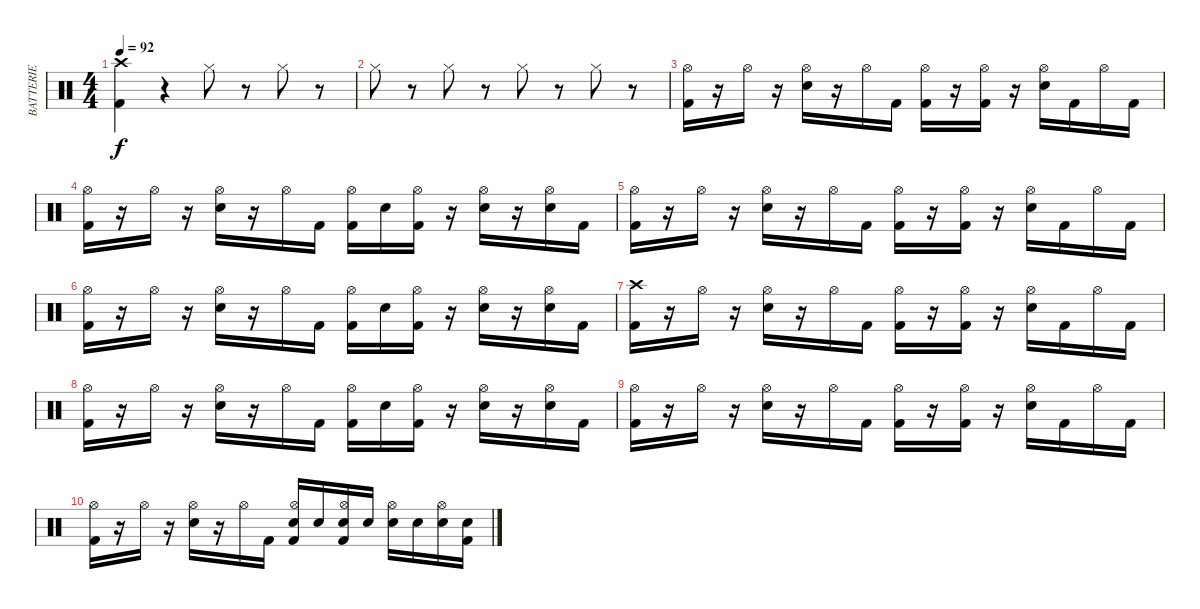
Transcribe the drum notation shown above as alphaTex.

\track ("BATTERIE" "BATTERIE") {instrument percussion}
\staff {score}
\articulation defaults
\ts (4 4)
\tempo 92
\clef neutral
\ks c
("Crash high (hit)" "Kick (hit) 2").4{dy f} r.4 "Hi-Hat (closed)".8 r.8 "Hi-Hat (closed)".8 r.8 |
"Hi-Hat (closed)".8 r.8 "Hi-Hat (closed)".8 r.8 "Hi-Hat (closed)".8 r.8 "Hi-Hat (closed)".8 r.8 |
("Hi-Hat (open)" "Kick (hit) 2").16 r.16 "Hi-Hat (open)".16 r.16 ("Hi-Hat (open)" "Snare (hit) 2").16 r.16 "Hi-Hat (open)".16 "Kick (hit) 2".16 ("Hi-Hat (open)" "Kick (hit) 2").16 r.16 ("Hi-Hat (open)" "Kick (hit) 2").16 r.16 ("Hi-Hat (open)" "Snare (hit) 2").16 "Kick (hit) 2".16 "Hi-Hat (open)".16 "Kick (hit) 2".16 |
("Hi-Hat (open)" "Kick (hit) 2").16 r.16 "Hi-Hat (open)".16 r.16 ("Hi-Hat (open)" "Snare (hit) 2").16 r.16 "Hi-Hat (open)".16 "Kick (hit) 2".16 ("Hi-Hat (open)" "Kick (hit) 2").16 "Snare (hit) 2".16 ("Hi-Hat (open)" "Kick (hit) 2").16 r.16 ("Hi-Hat (open)" "Snare (hit) 2").16 r.16 ("Hi-Hat (open)" "Snare (hit) 2").16 "Kick (hit) 2".16 |
("Hi-Hat (open)" "Kick (hit) 2").16 r.16 "Hi-Hat (open)".16 r.16 ("Hi-Hat (open)" "Snare (hit) 2").16 r.16 "Hi-Hat (open)".16 "Kick (hit) 2".16 ("Hi-Hat (open)" "Kick (hit) 2").16 r.16 ("Hi-Hat (open)" "Kick (hit) 2").16 r.16 ("Hi-Hat (open)" "Snare (hit) 2").16 "Kick (hit) 2".16 "Hi-Hat (open)".16 "Kick (hit) 2".16 |
("Hi-Hat (open)" "Kick (hit) 2").16 r.16 "Hi-Hat (open)".16 r.16 ("Hi-Hat (open)" "Snare (hit) 2").16 r.16 "Hi-Hat (open)".16 "Kick (hit) 2".16 ("Hi-Hat (open)" "Kick (hit) 2").16 "Snare (hit) 2".16 ("Hi-Hat (open)" "Kick (hit) 2").16 r.16 ("Hi-Hat (open)" "Snare (hit) 2").16 r.16 ("Hi-Hat (open)" "Snare (hit) 2").16 "Kick (hit) 2".16 |
("Crash high (hit)" "Kick (hit) 2").16 r.16 "Hi-Hat (open)".16 r.16 ("Hi-Hat (open)" "Snare (hit) 2").16 r.16 "Hi-Hat (open)".16 "Kick (hit) 2".16 ("Hi-Hat (open)" "Kick (hit) 2").16 r.16 ("Hi-Hat (open)" "Kick (hit) 2").16 r.16 ("Hi-Hat (open)" "Snare (hit) 2").16 "Kick (hit) 2".16 "Hi-Hat (open)".16 "Kick (hit) 2".16 |
("Hi-Hat (open)" "Kick (hit) 2").16 r.16 "Hi-Hat (open)".16 r.16 ("Hi-Hat (open)" "Snare (hit) 2").16 r.16 "Hi-Hat (open)".16 "Kick (hit) 2".16 ("Hi-Hat (open)" "Kick (hit) 2").16 "Snare (hit) 2".16 ("Hi-Hat (open)" "Kick (hit) 2").16 r.16 ("Hi-Hat (open)" "Snare (hit) 2").16 r.16 ("Hi-Hat (open)" "Snare (hit) 2").16 "Kick (hit) 2".16 |
("Hi-Hat (open)" "Kick (hit) 2").16 r.16 "Hi-Hat (open)".16 r.16 ("Hi-Hat (open)" "Snare (hit) 2").16 r.16 "Hi-Hat (open)".16 "Kick (hit) 2".16 ("Hi-Hat (open)" "Kick (hit) 2").16 r.16 ("Hi-Hat (open)" "Kick (hit) 2").16 r.16 ("Hi-Hat (open)" "Snare (hit) 2").16 "Kick (hit) 2".16 "Hi-Hat (open)".16 "Kick (hit) 2".16 |
("Hi-Hat (open)" "Kick (hit) 2").16 r.16 "Hi-Hat (open)".16 r.16 ("Hi-Hat (open)" "Snare (hit) 2").16 r.16 "Hi-Hat (open)".16 "Kick (hit) 2".16 ("Hi-Hat (open)" "Electric Snare (hit)" "Kick (hit) 2").16 "Electric Snare (hit)".16 ("Hi-Hat (open)" "Electric Snare (hit)" "Kick (hit) 2").16 "Electric Snare (hit)".16 ("Hi-Hat (open)" "Electric Snare (hit)").16 "Electric Snare (hit)".16 ("Hi-Hat (open)" "Snare (hit) 2").16 ("Snare (hit) 2" "Kick (hit) 2").16
